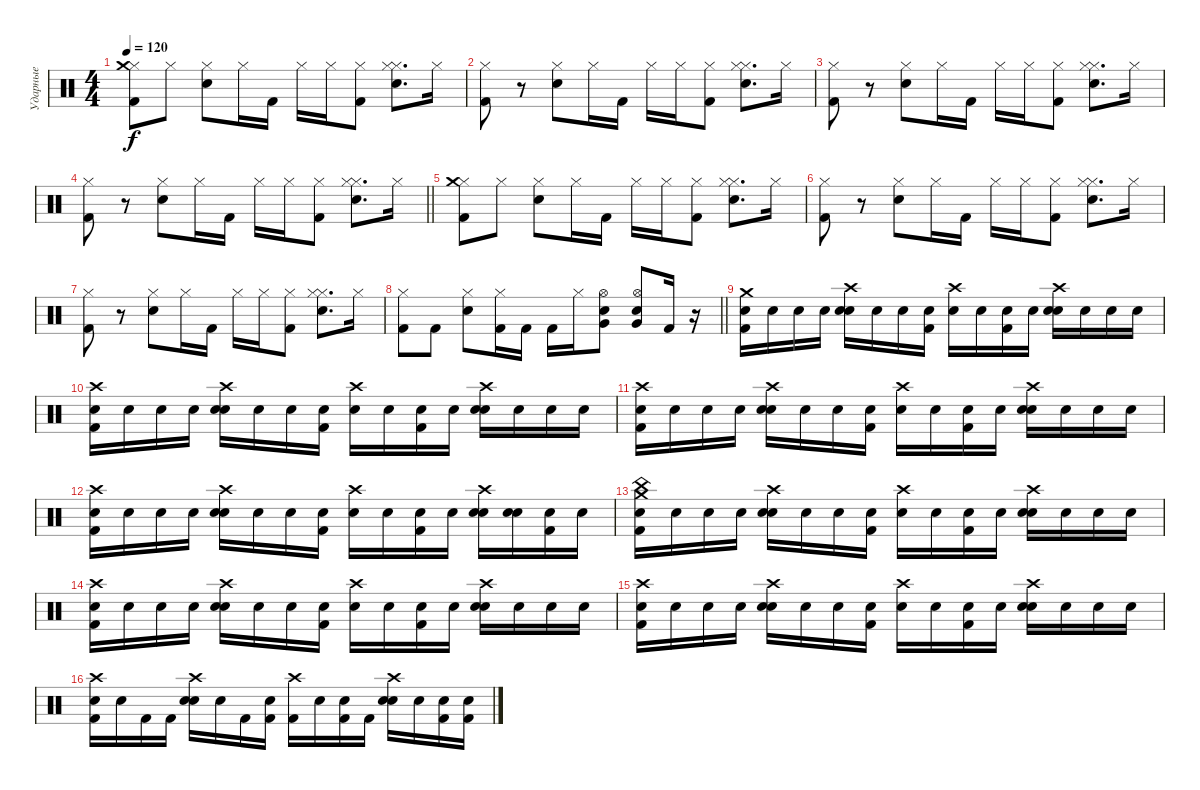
\track ("Ударные" "Ударные") {instrument percussion}
\staff {score}
\articulation defaults
\ts (4 4)
\tempo 120
\clef neutral
\ks c
("Hi-Hat (closed)" "Crash medium (hit)" "Kick (hit) 2").8{dy f} "Hi-Hat (closed)".8 ("Hi-Hat (closed)" "Snare (hit) 2").8 "Hi-Hat (closed)".16 "Kick (hit) 2".16 "Hi-Hat (closed)".16 "Hi-Hat (closed)".16 ("Hi-Hat (closed)" "Kick (hit) 2").8 ("Hi-Hat (closed)" "Hi-Hat (closed)" "Snare (hit) 2").8{d} "Hi-Hat (closed)".16 |
("Hi-Hat (closed)" "Kick (hit) 2").8 r.8 ("Hi-Hat (closed)" "Snare (hit) 2").8 "Hi-Hat (closed)".16 "Kick (hit) 2".16 "Hi-Hat (closed)".16 "Hi-Hat (closed)".16 ("Hi-Hat (closed)" "Kick (hit) 2").8 ("Hi-Hat (closed)" "Hi-Hat (closed)" "Snare (hit) 2").8{d} "Hi-Hat (closed)".16 |
("Hi-Hat (closed)" "Kick (hit) 2").8 r.8 ("Hi-Hat (closed)" "Snare (hit) 2").8 "Hi-Hat (closed)".16 "Kick (hit) 2".16 "Hi-Hat (closed)".16 "Hi-Hat (closed)".16 ("Hi-Hat (closed)" "Kick (hit) 2").8 ("Hi-Hat (closed)" "Hi-Hat (closed)" "Snare (hit) 2").8{d} "Hi-Hat (closed)".16 |
\barLineRight lightlight
("Hi-Hat (closed)" "Kick (hit) 2").8 r.8 ("Hi-Hat (closed)" "Snare (hit) 2").8 "Hi-Hat (closed)".16 "Kick (hit) 2".16 "Hi-Hat (closed)".16 "Hi-Hat (closed)".16 ("Hi-Hat (closed)" "Kick (hit) 2").8 ("Hi-Hat (closed)" "Hi-Hat (closed)" "Snare (hit) 2").8{d} "Hi-Hat (closed)".16 |
("Hi-Hat (closed)" "Crash medium (hit)" "Kick (hit) 2").8 "Hi-Hat (closed)".8 ("Hi-Hat (closed)" "Snare (hit) 2").8 "Hi-Hat (closed)".16 "Kick (hit) 2".16 "Hi-Hat (closed)".16 "Hi-Hat (closed)".16 ("Hi-Hat (closed)" "Kick (hit) 2").8 ("Hi-Hat (closed)" "Hi-Hat (closed)" "Snare (hit) 2").8{d} "Hi-Hat (closed)".16 |
("Hi-Hat (closed)" "Kick (hit) 2").8 r.8 ("Hi-Hat (closed)" "Snare (hit) 2").8 "Hi-Hat (closed)".16 "Kick (hit) 2".16 "Hi-Hat (closed)".16 "Hi-Hat (closed)".16 ("Hi-Hat (closed)" "Kick (hit) 2").8 ("Hi-Hat (closed)" "Hi-Hat (closed)" "Snare (hit) 2").8{d} "Hi-Hat (closed)".16 |
("Hi-Hat (closed)" "Kick (hit) 2").8 r.8 ("Hi-Hat (closed)" "Snare (hit) 2").8 "Hi-Hat (closed)".16 "Kick (hit) 2".16 "Hi-Hat (closed)".16 "Hi-Hat (closed)".16 ("Hi-Hat (closed)" "Kick (hit) 2").8 ("Hi-Hat (closed)" "Hi-Hat (closed)" "Snare (hit) 2").8{d} "Hi-Hat (closed)".16 |
\barLineRight lightlight
("Hi-Hat (closed)" "Kick (hit) 2").8 "Kick (hit) 2".8 ("Hi-Hat (closed)" "Snare (hit) 2").8 ("Hi-Hat (closed)" "Kick (hit) 2").16 "Kick (hit) 2".16 "Kick (hit) 2".16 "Hi-Hat (closed)".16 ("Hi-Hat (open)" "Snare (hit) 2" "Very Low Tom (hit)").8 ("Hi-Hat (open)" "Snare (hit) 2" "Very Low Tom (hit)").8 "Kick (hit) 2".16 r.16 |
("Crash medium (hit)" "Kick (hit) 2" "Snare (hit)").16 "Snare (hit)".16 "Snare (hit)".16 "Snare (hit)".16 ("Crash high (hit)" "Snare (hit) 2" "Snare (hit)").16 "Snare (hit)".16 "Snare (hit)".16 ("Kick (hit) 2" "Snare (hit)").16 ("Crash high (hit)" "Snare (hit)").16 "Snare (hit)".16 ("Kick (hit) 2" "Snare (hit)").16 "Snare (hit)".16 ("Crash high (hit)" "Snare (hit) 2" "Snare (hit)").16 "Snare (hit)".16 "Snare (hit)".16 "Snare (hit)".16 |
("Crash high (hit)" "Kick (hit) 2" "Snare (hit)").16 "Snare (hit)".16 "Snare (hit)".16 "Snare (hit)".16 ("Crash high (hit)" "Snare (hit) 2" "Snare (hit)").16 "Snare (hit)".16 "Snare (hit)".16 ("Kick (hit) 2" "Snare (hit)").16 ("Crash high (hit)" "Snare (hit)").16 "Snare (hit)".16 ("Kick (hit) 2" "Snare (hit)").16 "Snare (hit)".16 ("Crash high (hit)" "Snare (hit) 2" "Snare (hit)").16 "Snare (hit)".16 "Snare (hit)".16 "Snare (hit)".16 |
("Crash high (hit)" "Kick (hit) 2" "Snare (hit)").16 "Snare (hit)".16 "Snare (hit)".16 "Snare (hit)".16 ("Crash high (hit)" "Snare (hit) 2" "Snare (hit)").16 "Snare (hit)".16 "Snare (hit)".16 ("Kick (hit) 2" "Snare (hit)").16 ("Crash high (hit)" "Snare (hit)").16 "Snare (hit)".16 ("Kick (hit) 2" "Snare (hit)").16 "Snare (hit)".16 ("Crash high (hit)" "Snare (hit) 2" "Snare (hit)").16 "Snare (hit)".16 "Snare (hit)".16 "Snare (hit)".16 |
("Crash high (hit)" "Kick (hit) 2" "Snare (hit)").16 "Snare (hit)".16 "Snare (hit)".16 "Snare (hit)".16 ("Crash high (hit)" "Snare (hit) 2" "Snare (hit)").16 "Snare (hit)".16 "Snare (hit)".16 ("Kick (hit) 2" "Snare (hit)").16 ("Crash high (hit)" "Snare (hit)").16 "Snare (hit)".16 ("Kick (hit) 2" "Snare (hit)").16 "Snare (hit)".16 ("Crash high (hit)" "Snare (hit) 2" "Snare (hit)").16 ("Snare (hit) 2" "Snare (hit)").16 ("Kick (hit) 2" "Snare (hit)").16 "Snare (hit)".16 |
("Crash medium (hit)" "China (hit)" "Kick (hit) 2" "Snare (hit)").16 "Snare (hit)".16 "Snare (hit)".16 "Snare (hit)".16 ("Crash high (hit)" "Snare (hit) 2" "Snare (hit)").16 "Snare (hit)".16 "Snare (hit)".16 ("Kick (hit) 2" "Snare (hit)").16 ("Crash high (hit)" "Snare (hit)").16 "Snare (hit)".16 ("Kick (hit) 2" "Snare (hit)").16 "Snare (hit)".16 ("Crash high (hit)" "Snare (hit) 2" "Snare (hit)").16 "Snare (hit)".16 "Snare (hit)".16 "Snare (hit)".16 |
("Crash high (hit)" "Kick (hit) 2" "Snare (hit)").16 "Snare (hit)".16 "Snare (hit)".16 "Snare (hit)".16 ("Crash high (hit)" "Snare (hit) 2" "Snare (hit)").16 "Snare (hit)".16 "Snare (hit)".16 ("Kick (hit) 2" "Snare (hit)").16 ("Crash high (hit)" "Snare (hit)").16 "Snare (hit)".16 ("Kick (hit) 2" "Snare (hit)").16 "Snare (hit)".16 ("Crash high (hit)" "Snare (hit) 2" "Snare (hit)").16 "Snare (hit)".16 "Snare (hit)".16 "Snare (hit)".16 |
("Crash high (hit)" "Kick (hit) 2" "Snare (hit)").16 "Snare (hit)".16 "Snare (hit)".16 "Snare (hit)".16 ("Crash high (hit)" "Snare (hit) 2" "Snare (hit)").16 "Snare (hit)".16 "Snare (hit)".16 ("Kick (hit) 2" "Snare (hit)").16 ("Crash high (hit)" "Snare (hit)").16 "Snare (hit)".16 ("Kick (hit) 2" "Snare (hit)").16 "Snare (hit)".16 ("Crash high (hit)" "Snare (hit) 2" "Snare (hit)").16 "Snare (hit)".16 "Snare (hit)".16 "Snare (hit)".16 |
("Crash high (hit)" "Kick (hit) 2" "Snare (hit)").16 "Snare (hit)".16 "Kick (hit) 2".16 "Kick (hit) 2".16 ("Crash high (hit)" "Snare (hit) 2" "Snare (hit)").16 "Snare (hit)".16 "Kick (hit) 2".16 ("Kick (hit) 2" "Snare (hit)").16 ("Crash high (hit)" "Kick (hit) 2").16 "Snare (hit)".16 ("Kick (hit) 2" "Snare (hit)").16 "Kick (hit) 2".16 ("Crash high (hit)" "Snare (hit) 2" "Snare (hit)").16 "Snare (hit)".16 ("Kick (hit) 2" "Snare (hit)").16 ("Kick (hit) 2" "Snare (hit)").16
